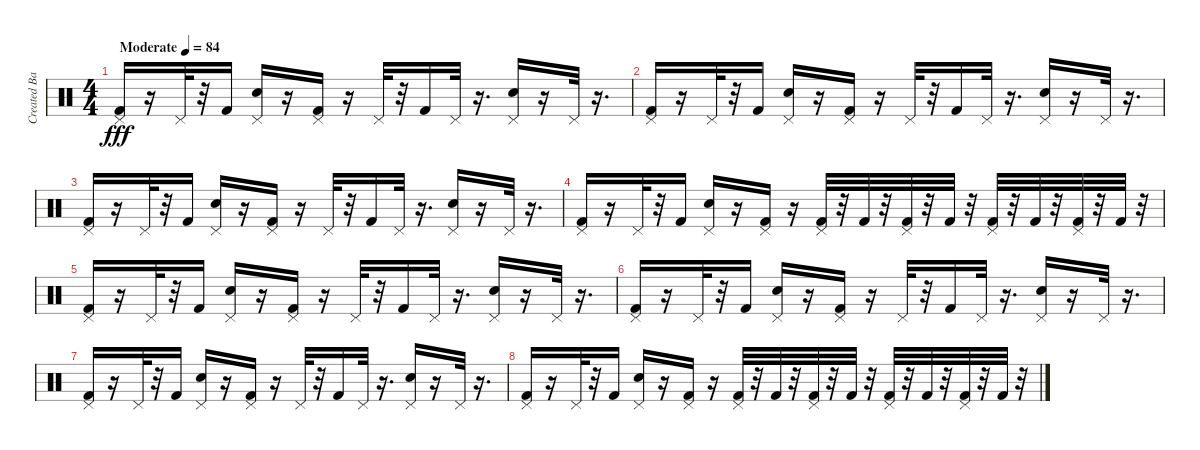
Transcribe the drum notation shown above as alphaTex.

\track ("Created Ba Ade" "Created Ba") {instrument percussion}
\staff {score}
\articulation defaults
\ts (4 4)
\tempo (84 "Moderate")
\clef neutral
\ks c
("Pedal Hi-Hat (hit)" "Kick (hit) 2").16{dy fff} r.16 "Pedal Hi-Hat (hit)".32 r.32 "Kick (hit) 2".16 ("Hand Clap (hit)" "Pedal Hi-Hat (hit)").16 r.16 ("Kick (hit) 2" "Pedal Hi-Hat (hit)").16 r.16 "Pedal Hi-Hat (hit)".32 r.32 "Kick (hit) 2".16 "Pedal Hi-Hat (hit)".32 r.16{d} ("Hand Clap (hit)" "Pedal Hi-Hat (hit)").16 r.16 "Pedal Hi-Hat (hit)".32 r.16{d} |
("Pedal Hi-Hat (hit)" "Kick (hit) 2").16 r.16 "Pedal Hi-Hat (hit)".32 r.32 "Kick (hit) 2".16 ("Hand Clap (hit)" "Pedal Hi-Hat (hit)").16 r.16 ("Kick (hit) 2" "Pedal Hi-Hat (hit)").16 r.16 "Pedal Hi-Hat (hit)".32 r.32 "Kick (hit) 2".16 "Pedal Hi-Hat (hit)".32 r.16{d} ("Hand Clap (hit)" "Pedal Hi-Hat (hit)").16 r.16 "Pedal Hi-Hat (hit)".32 r.16{d} |
("Kick (hit) 2" "Pedal Hi-Hat (hit)").16 r.16 "Pedal Hi-Hat (hit)".32 r.32 "Kick (hit) 2".16 ("Hand Clap (hit)" "Pedal Hi-Hat (hit)").16 r.16 ("Kick (hit) 2" "Pedal Hi-Hat (hit)").16 r.16 "Pedal Hi-Hat (hit)".32 r.32 "Kick (hit) 2".16 "Pedal Hi-Hat (hit)".32 r.16{d} ("Hand Clap (hit)" "Pedal Hi-Hat (hit)").16 r.16 "Pedal Hi-Hat (hit)".32 r.16{d} |
("Pedal Hi-Hat (hit)" "Kick (hit) 2").16 r.16 "Pedal Hi-Hat (hit)".32 r.32 "Kick (hit) 2".16 ("Hand Clap (hit)" "Pedal Hi-Hat (hit)").16 r.16 ("Kick (hit) 2" "Pedal Hi-Hat (hit)").16 r.16 ("Kick (hit) 2" "Pedal Hi-Hat (hit)").32 r.32 "Kick (hit) 2".32 r.32 ("Kick (hit) 2" "Pedal Hi-Hat (hit)").32 r.32 "Kick (hit) 2".32 r.32 ("Kick (hit) 2" "Pedal Hi-Hat (hit)").32 r.32 "Kick (hit) 2".32 r.32 ("Kick (hit) 2" "Pedal Hi-Hat (hit)").32 r.32 "Kick (hit) 2".32 r.32 |
("Pedal Hi-Hat (hit)" "Kick (hit) 2").16 r.16 "Pedal Hi-Hat (hit)".32 r.32 "Kick (hit) 2".16 ("Hand Clap (hit)" "Pedal Hi-Hat (hit)").16 r.16 ("Kick (hit) 2" "Pedal Hi-Hat (hit)").16 r.16 "Pedal Hi-Hat (hit)".32 r.32 "Kick (hit) 2".16 "Pedal Hi-Hat (hit)".32 r.16{d} ("Hand Clap (hit)" "Pedal Hi-Hat (hit)").16 r.16 "Pedal Hi-Hat (hit)".32 r.16{d} |
("Pedal Hi-Hat (hit)" "Kick (hit) 2").16 r.16 "Pedal Hi-Hat (hit)".32 r.32 "Kick (hit) 2".16 ("Hand Clap (hit)" "Pedal Hi-Hat (hit)").16 r.16 ("Kick (hit) 2" "Pedal Hi-Hat (hit)").16 r.16 "Pedal Hi-Hat (hit)".32 r.32 "Kick (hit) 2".16 "Pedal Hi-Hat (hit)".32 r.16{d} ("Hand Clap (hit)" "Pedal Hi-Hat (hit)").16 r.16 "Pedal Hi-Hat (hit)".32 r.16{d} |
("Kick (hit) 2" "Pedal Hi-Hat (hit)").16 r.16 "Pedal Hi-Hat (hit)".32 r.32 "Kick (hit) 2".16 ("Hand Clap (hit)" "Pedal Hi-Hat (hit)").16 r.16 ("Kick (hit) 2" "Pedal Hi-Hat (hit)").16 r.16 "Pedal Hi-Hat (hit)".32 r.32 "Kick (hit) 2".16 "Pedal Hi-Hat (hit)".32 r.16{d} ("Hand Clap (hit)" "Pedal Hi-Hat (hit)").16 r.16 "Pedal Hi-Hat (hit)".32 r.16{d} |
("Pedal Hi-Hat (hit)" "Kick (hit) 2").16 r.16 "Pedal Hi-Hat (hit)".32 r.32 "Kick (hit) 2".16 ("Hand Clap (hit)" "Pedal Hi-Hat (hit)").16 r.16 ("Kick (hit) 2" "Pedal Hi-Hat (hit)").16 r.16 ("Kick (hit) 2" "Pedal Hi-Hat (hit)").32 r.32 "Kick (hit) 2".32 r.32 ("Kick (hit) 2" "Pedal Hi-Hat (hit)").32 r.32 "Kick (hit) 2".32 r.32 ("Kick (hit) 2" "Pedal Hi-Hat (hit)").32 r.32 "Kick (hit) 2".32 r.32 ("Kick (hit) 2" "Pedal Hi-Hat (hit)").32 r.32 "Kick (hit) 2".32 r.32
